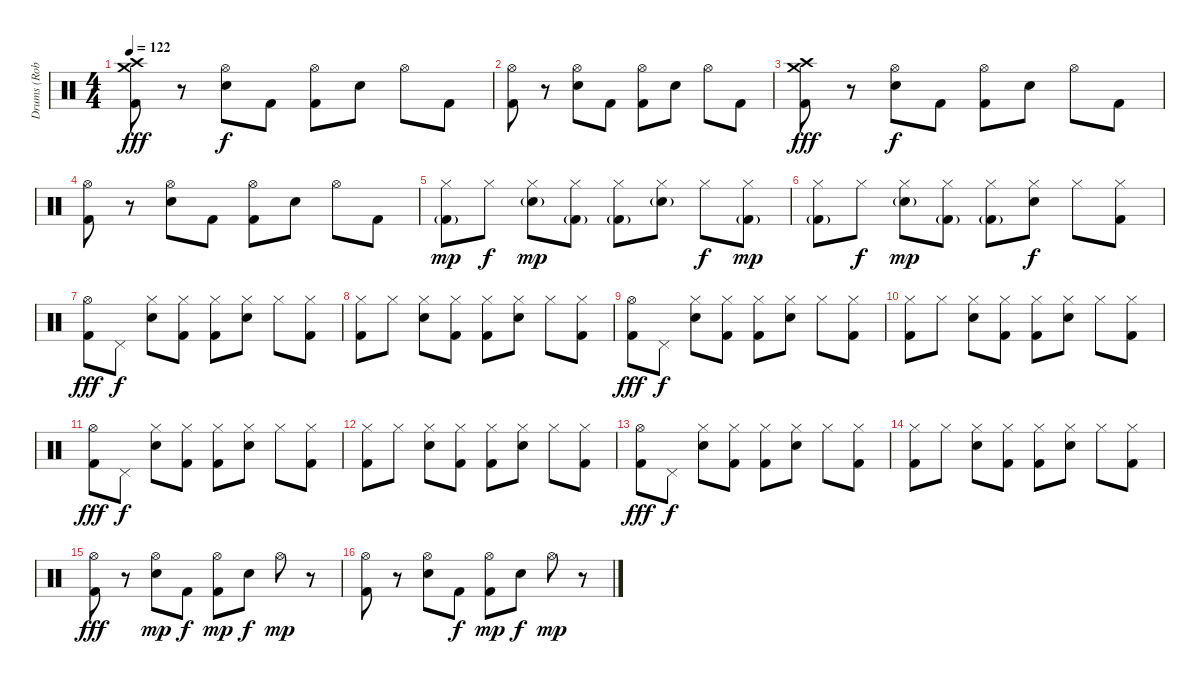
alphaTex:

\track ("Drums (Rob Boudron)" "Drums (Rob") {instrument percussion}
\staff {score}
\articulation defaults
\ts (4 4)
\tempo 122
\clef neutral
\ks c
("Crash medium (hit)" "Crash high (hit)" "Kick (hit) 2").8{dy fff} r.8 ("Hi-Hat (open)" "Electric Snare (hit)").8{dy f} "Kick (hit) 2".8 ("Hi-Hat (open)" "Kick (hit) 2").8 "Electric Snare (hit)".8 "Hi-Hat (open)".8 "Kick (hit) 2".8 |
("Hi-Hat (open)" "Kick (hit) 2").8 r.8 ("Hi-Hat (open)" "Electric Snare (hit)").8 "Kick (hit) 2".8 ("Hi-Hat (open)" "Kick (hit) 2").8 "Electric Snare (hit)".8 "Hi-Hat (open)".8 "Kick (hit) 2".8 |
("Crash medium (hit)" "Crash high (hit)" "Kick (hit) 2").8{dy fff} r.8 ("Hi-Hat (open)" "Electric Snare (hit)").8{dy f} "Kick (hit) 2".8 ("Hi-Hat (open)" "Kick (hit) 2").8 "Electric Snare (hit)".8 "Hi-Hat (open)".8 "Kick (hit) 2".8 |
("Hi-Hat (open)" "Kick (hit) 2").8 r.8 ("Hi-Hat (open)" "Electric Snare (hit)").8 "Kick (hit) 2".8 ("Hi-Hat (open)" "Kick (hit) 2").8 "Electric Snare (hit)".8 "Hi-Hat (open)".8 "Kick (hit) 2".8 |
("Hi-Hat (closed)" "Kick (hit) 2"{g}).8{dy mp} "Hi-Hat (closed)".8{dy f} ("Hi-Hat (closed)" "Electric Snare (hit)"{g}).8{dy mp} ("Hi-Hat (closed)" "Kick (hit) 2"{g}).8 ("Hi-Hat (closed)" "Kick (hit) 2"{g}).8 ("Hi-Hat (closed)" "Electric Snare (hit)"{g}).8 "Hi-Hat (closed)".8{dy f} ("Hi-Hat (closed)" "Kick (hit) 2"{g}).8{dy mp} |
("Hi-Hat (closed)" "Kick (hit) 2"{g}).8 "Hi-Hat (closed)".8{dy f} ("Hi-Hat (closed)" "Electric Snare (hit)"{g}).8{dy mp} ("Hi-Hat (closed)" "Kick (hit) 2"{g}).8 ("Hi-Hat (closed)" "Kick (hit) 2"{g}).8 ("Hi-Hat (closed)" "Electric Snare (hit)").8{dy f} "Hi-Hat (closed)".8 ("Hi-Hat (closed)" "Kick (hit) 2").8 |
("Hi-Hat (open)" "Kick (hit) 2").8{dy fff} "Pedal Hi-Hat (hit)".8{dy f} ("Hi-Hat (closed)" "Electric Snare (hit)").8 ("Hi-Hat (closed)" "Kick (hit) 2").8 ("Hi-Hat (closed)" "Kick (hit) 2").8 ("Hi-Hat (closed)" "Electric Snare (hit)").8 "Hi-Hat (closed)".8 ("Hi-Hat (closed)" "Kick (hit) 2").8 |
("Hi-Hat (closed)" "Kick (hit) 2").8 "Hi-Hat (closed)".8 ("Hi-Hat (closed)" "Electric Snare (hit)").8 ("Hi-Hat (closed)" "Kick (hit) 2").8 ("Hi-Hat (closed)" "Kick (hit) 2").8 ("Hi-Hat (closed)" "Electric Snare (hit)").8 "Hi-Hat (closed)".8 ("Hi-Hat (closed)" "Kick (hit) 2").8 |
("Hi-Hat (open)" "Kick (hit) 2").8{dy fff} "Pedal Hi-Hat (hit)".8{dy f} ("Hi-Hat (closed)" "Electric Snare (hit)").8 ("Hi-Hat (closed)" "Kick (hit) 2").8 ("Hi-Hat (closed)" "Kick (hit) 2").8 ("Hi-Hat (closed)" "Electric Snare (hit)").8 "Hi-Hat (closed)".8 ("Hi-Hat (closed)" "Kick (hit) 2").8 |
("Hi-Hat (closed)" "Kick (hit) 2").8 "Hi-Hat (closed)".8 ("Hi-Hat (closed)" "Electric Snare (hit)").8 ("Hi-Hat (closed)" "Kick (hit) 2").8 ("Hi-Hat (closed)" "Kick (hit) 2").8 ("Hi-Hat (closed)" "Electric Snare (hit)").8 "Hi-Hat (closed)".8 ("Hi-Hat (closed)" "Kick (hit) 2").8 |
("Hi-Hat (open)" "Kick (hit) 2").8{dy fff} "Pedal Hi-Hat (hit)".8{dy f} ("Hi-Hat (closed)" "Electric Snare (hit)").8 ("Hi-Hat (closed)" "Kick (hit) 2").8 ("Hi-Hat (closed)" "Kick (hit) 2").8 ("Hi-Hat (closed)" "Electric Snare (hit)").8 "Hi-Hat (closed)".8 ("Hi-Hat (closed)" "Kick (hit) 2").8 |
("Hi-Hat (closed)" "Kick (hit) 2").8 "Hi-Hat (closed)".8 ("Hi-Hat (closed)" "Electric Snare (hit)").8 ("Hi-Hat (closed)" "Kick (hit) 2").8 ("Hi-Hat (closed)" "Kick (hit) 2").8 ("Hi-Hat (closed)" "Electric Snare (hit)").8 "Hi-Hat (closed)".8 ("Hi-Hat (closed)" "Kick (hit) 2").8 |
("Hi-Hat (open)" "Kick (hit) 2").8{dy fff} "Pedal Hi-Hat (hit)".8{dy f} ("Hi-Hat (closed)" "Electric Snare (hit)").8 ("Hi-Hat (closed)" "Kick (hit) 2").8 ("Hi-Hat (closed)" "Kick (hit) 2").8 ("Hi-Hat (closed)" "Electric Snare (hit)").8 "Hi-Hat (closed)".8 ("Hi-Hat (closed)" "Kick (hit) 2").8 |
("Hi-Hat (closed)" "Kick (hit) 2").8 "Hi-Hat (closed)".8 ("Hi-Hat (closed)" "Electric Snare (hit)").8 ("Hi-Hat (closed)" "Kick (hit) 2").8 ("Hi-Hat (closed)" "Kick (hit) 2").8 ("Hi-Hat (closed)" "Electric Snare (hit)").8 "Hi-Hat (closed)".8 ("Hi-Hat (closed)" "Kick (hit) 2").8 |
("Hi-Hat (open)" "Kick (hit) 2").8{dy fff} r.8 ("Hi-Hat (open)" "Electric Snare (hit)").8{dy mp} "Kick (hit) 2".8{dy f} ("Hi-Hat (open)" "Kick (hit) 2").8{dy mp} "Electric Snare (hit)".8{dy f} "Hi-Hat (open)".8{dy mp} r.8 |
("Hi-Hat (open)" "Kick (hit) 2").8 r.8 ("Hi-Hat (open)" "Electric Snare (hit)").8 "Kick (hit) 2".8{dy f} ("Hi-Hat (open)" "Kick (hit) 2").8{dy mp} "Electric Snare (hit)".8{dy f} "Hi-Hat (open)".8{dy mp} r.8
